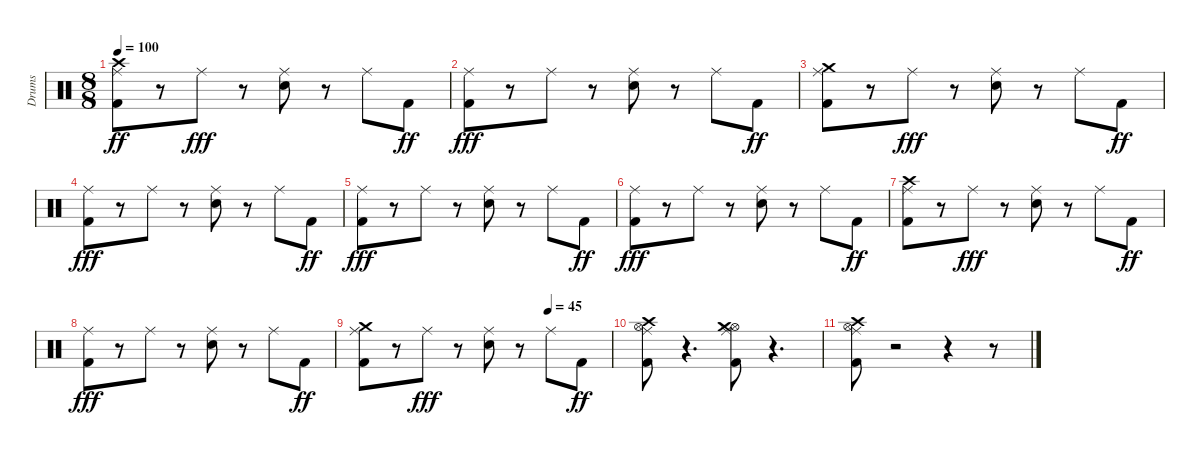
\track ("Drums" "Drums") {instrument percussion}
\staff {score}
\articulation defaults
\ts (8 8)
\tempo 100
\clef neutral
\ks c
("Kick (hit) 2" "Ride (middle)" "Crash high (hit)").8{dy ff} r.8 "Ride (middle)".8{dy fff} r.8 ("Snare (hit) 2" "Ride (middle)").8 r.8 "Ride (middle)".8 "Kick (hit) 2".8{dy ff} |
("Kick (hit) 2" "Ride (middle)").8{dy fff} r.8 "Ride (middle)".8 r.8 ("Snare (hit) 2" "Ride (middle)").8 r.8 "Ride (middle)".8 "Kick (hit) 2".8{dy ff} |
("Kick (hit) 2" "Ride (middle)" "Crash medium (hit)").8 r.8 "Ride (middle)".8{dy fff} r.8 ("Snare (hit) 2" "Ride (middle)").8 r.8 "Ride (middle)".8 "Kick (hit) 2".8{dy ff} |
("Kick (hit) 2" "Ride (middle)").8{dy fff} r.8 "Ride (middle)".8 r.8 ("Snare (hit) 2" "Ride (middle)").8 r.8 "Ride (middle)".8 "Kick (hit) 2".8{dy ff} |
("Kick (hit) 2" "Ride (middle)").8{dy fff} r.8 "Ride (middle)".8 r.8 ("Snare (hit) 2" "Ride (middle)").8 r.8 "Ride (middle)".8 "Kick (hit) 2".8{dy ff} |
("Kick (hit) 2" "Ride (middle)").8{dy fff} r.8 "Ride (middle)".8 r.8 ("Snare (hit) 2" "Ride (middle)").8 r.8 "Ride (middle)".8 "Kick (hit) 2".8{dy ff} |
("Kick (hit) 2" "Ride (middle)" "Crash high (hit)").8 r.8 "Ride (middle)".8{dy fff} r.8 ("Snare (hit) 2" "Ride (middle)").8 r.8 "Ride (middle)".8 "Kick (hit) 2".8{dy ff} |
("Kick (hit) 2" "Ride (middle)").8{dy fff} r.8 "Ride (middle)".8 r.8 ("Snare (hit) 2" "Ride (middle)").8 r.8 "Ride (middle)".8 "Kick (hit) 2".8{dy ff} |
\tempo (45 0.75)
("Kick (hit) 2" "Ride (middle)" "Crash medium (hit)").8 r.8 "Ride (middle)".8{dy fff} r.8 ("Snare (hit) 2" "Ride (middle)").8 r.8 "Ride (middle)".8 "Kick (hit) 2".8{dy ff} |
("Kick (hit) 2" "Hi-Hat (open)" "Ride (middle)" "Crash high (hit)").8 r.4{d} ("Kick (hit) 2" "Hi-Hat (open)" "Ride (middle)" "Crash medium (hit)").8 r.4{d} |
("Kick (hit) 2" "Hi-Hat (open)" "Ride (middle)" "Crash high (hit)").8 r.2 r.4 r.8
